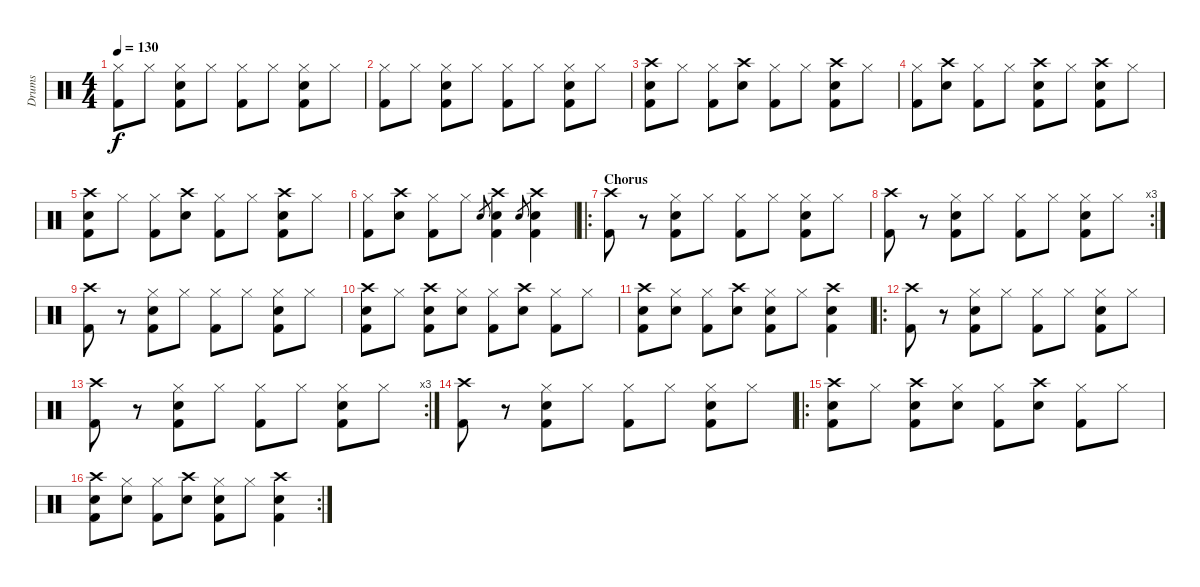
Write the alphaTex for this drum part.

\track ("Drums" "Drums") {instrument percussion}
\staff {score}
\articulation defaults
\ts (4 4)
\tempo 130
\clef neutral
\ks c
("Hi-Hat (closed)" "Kick (hit) 2").8{dy f} "Hi-Hat (closed)".8 ("Hi-Hat (closed)" "Snare (hit) 2" "Kick (hit) 2").8 "Hi-Hat (closed)".8 ("Hi-Hat (closed)" "Kick (hit) 2").8 "Hi-Hat (closed)".8 ("Hi-Hat (closed)" "Snare (hit) 2" "Kick (hit) 2").8 "Hi-Hat (closed)".8 |
("Hi-Hat (closed)" "Kick (hit) 2").8 "Hi-Hat (closed)".8 ("Hi-Hat (closed)" "Snare (hit) 2" "Kick (hit) 2").8 "Hi-Hat (closed)".8 ("Hi-Hat (closed)" "Kick (hit) 2").8 "Hi-Hat (closed)".8 ("Hi-Hat (closed)" "Snare (hit) 2" "Kick (hit) 2").8 "Hi-Hat (closed)".8 |
("Crash high (hit)" "Snare (hit) 2" "Kick (hit) 2").8 "Hi-Hat (closed)".8 ("Hi-Hat (closed)" "Kick (hit) 2").8 ("Crash high (hit)" "Snare (hit) 2").8 ("Hi-Hat (closed)" "Kick (hit) 2").8 "Hi-Hat (closed)".8 ("Crash high (hit)" "Snare (hit) 2" "Kick (hit) 2").8 "Hi-Hat (closed)".8 |
("Hi-Hat (closed)" "Kick (hit) 2").8 ("Crash high (hit)" "Snare (hit) 2").8 ("Hi-Hat (closed)" "Kick (hit) 2").8 "Hi-Hat (closed)".8 ("Crash high (hit)" "Snare (hit) 2" "Kick (hit) 2").8 "Hi-Hat (closed)".8 ("Crash high (hit)" "Snare (hit) 2" "Kick (hit) 2").8 "Hi-Hat (closed)".8 |
("Crash high (hit)" "Snare (hit) 2" "Kick (hit) 2").8 "Hi-Hat (closed)".8 ("Hi-Hat (closed)" "Kick (hit) 2").8 ("Crash high (hit)" "Snare (hit) 2").8 ("Hi-Hat (closed)" "Kick (hit) 2").8 "Hi-Hat (closed)".8 ("Crash high (hit)" "Snare (hit) 2" "Kick (hit) 2").8 "Hi-Hat (closed)".8 |
("Hi-Hat (closed)" "Kick (hit) 2").8 ("Crash high (hit)" "Snare (hit) 2").8 ("Hi-Hat (closed)" "Kick (hit) 2").8 "Hi-Hat (closed)".8 "Snare (hit) 2".8{gr} ("Crash high (hit)" "Snare (hit) 2" "Kick (hit) 2").4 "Snare (hit) 2".8{gr} ("Crash high (hit)" "Snare (hit) 2" "Kick (hit) 2").4 |
\ro
\section ("" "Chorus")
("Crash high (hit)" "Kick (hit) 2").8 r.8 ("Hi-Hat (closed)" "Snare (hit) 2" "Kick (hit) 2").8 "Hi-Hat (closed)".8 ("Hi-Hat (closed)" "Kick (hit) 2").8 "Hi-Hat (closed)".8 ("Hi-Hat (closed)" "Snare (hit) 2" "Kick (hit) 2").8 "Hi-Hat (closed)".8 |
\rc 3
("Crash high (hit)" "Kick (hit) 2").8 r.8 ("Hi-Hat (closed)" "Snare (hit) 2" "Kick (hit) 2").8 "Hi-Hat (closed)".8 ("Hi-Hat (closed)" "Kick (hit) 2").8 "Hi-Hat (closed)".8 ("Hi-Hat (closed)" "Snare (hit) 2" "Kick (hit) 2").8 "Hi-Hat (closed)".8 |
("Crash high (hit)" "Kick (hit) 2").8 r.8 ("Hi-Hat (closed)" "Snare (hit) 2" "Kick (hit) 2").8 "Hi-Hat (closed)".8 ("Hi-Hat (closed)" "Kick (hit) 2").8 "Hi-Hat (closed)".8 ("Hi-Hat (closed)" "Snare (hit) 2" "Kick (hit) 2").8 "Hi-Hat (closed)".8 |
("Crash high (hit)" "Snare (hit) 2" "Kick (hit) 2").8 "Hi-Hat (closed)".8 ("Crash high (hit)" "Snare (hit) 2" "Kick (hit) 2").8 ("Hi-Hat (closed)" "Snare (hit) 2").8 ("Hi-Hat (closed)" "Kick (hit) 2").8 ("Crash high (hit)" "Snare (hit) 2").8 ("Hi-Hat (closed)" "Kick (hit) 2").8 "Hi-Hat (closed)".8 |
("Crash high (hit)" "Snare (hit) 2" "Kick (hit) 2").8 ("Hi-Hat (closed)" "Snare (hit) 2").8 ("Hi-Hat (closed)" "Kick (hit) 2").8 ("Crash high (hit)" "Snare (hit) 2").8 ("Hi-Hat (closed)" "Snare (hit) 2" "Kick (hit) 2").8 "Hi-Hat (closed)".8 ("Crash high (hit)" "Snare (hit) 2" "Kick (hit) 2").4 |
\ro
("Crash high (hit)" "Kick (hit) 2").8 r.8 ("Hi-Hat (closed)" "Snare (hit) 2" "Kick (hit) 2").8 "Hi-Hat (closed)".8 ("Hi-Hat (closed)" "Kick (hit) 2").8 "Hi-Hat (closed)".8 ("Hi-Hat (closed)" "Snare (hit) 2" "Kick (hit) 2").8 "Hi-Hat (closed)".8 |
\rc 3
("Crash high (hit)" "Kick (hit) 2").8 r.8 ("Hi-Hat (closed)" "Snare (hit) 2" "Kick (hit) 2").8 "Hi-Hat (closed)".8 ("Hi-Hat (closed)" "Kick (hit) 2").8 "Hi-Hat (closed)".8 ("Hi-Hat (closed)" "Snare (hit) 2" "Kick (hit) 2").8 "Hi-Hat (closed)".8 |
("Crash high (hit)" "Kick (hit) 2").8 r.8 ("Hi-Hat (closed)" "Snare (hit) 2" "Kick (hit) 2").8 "Hi-Hat (closed)".8 ("Hi-Hat (closed)" "Kick (hit) 2").8 "Hi-Hat (closed)".8 ("Hi-Hat (closed)" "Snare (hit) 2" "Kick (hit) 2").8 "Hi-Hat (closed)".8 |
\ro
("Crash high (hit)" "Snare (hit) 2" "Kick (hit) 2").8 "Hi-Hat (closed)".8 ("Crash high (hit)" "Snare (hit) 2" "Kick (hit) 2").8 ("Hi-Hat (closed)" "Snare (hit) 2").8 ("Hi-Hat (closed)" "Kick (hit) 2").8 ("Crash high (hit)" "Snare (hit) 2").8 ("Hi-Hat (closed)" "Kick (hit) 2").8 "Hi-Hat (closed)".8 |
\rc 2
("Crash high (hit)" "Snare (hit) 2" "Kick (hit) 2").8 ("Hi-Hat (closed)" "Snare (hit) 2").8 ("Hi-Hat (closed)" "Kick (hit) 2").8 ("Crash high (hit)" "Snare (hit) 2").8 ("Hi-Hat (closed)" "Snare (hit) 2" "Kick (hit) 2").8 "Hi-Hat (closed)".8 ("Crash high (hit)" "Snare (hit) 2" "Kick (hit) 2").4
